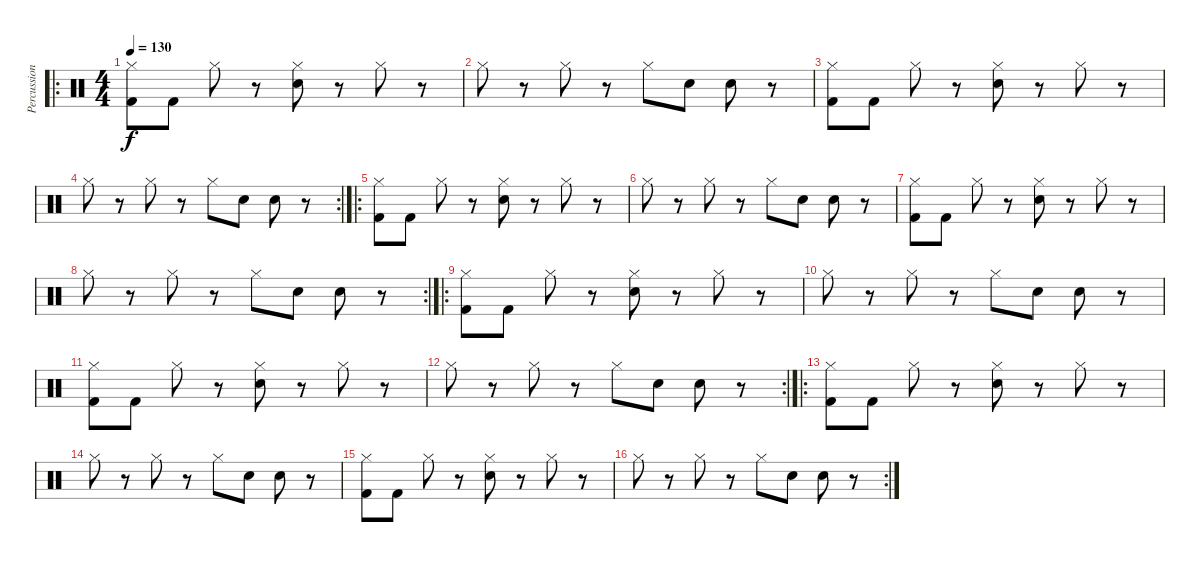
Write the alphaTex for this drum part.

\track ("Percussion" "Percussion") {instrument percussion}
\staff {score}
\articulation defaults
\ro
\ts (4 4)
\tempo 130
\clef neutral
\ks c
("Hi-Hat (closed)" "Kick (hit) 2").8{dy f} "Kick (hit) 2".8 "Hi-Hat (closed)".8 r.8 ("Hi-Hat (closed)" "Electric Snare (hit)").8 r.8 "Hi-Hat (closed)".8 r.8 |
"Hi-Hat (closed)".8 r.8 "Hi-Hat (closed)".8 r.8 "Hi-Hat (closed)".8 "Electric Snare (hit)".8 "Electric Snare (hit)".8 r.8 |
("Hi-Hat (closed)" "Kick (hit) 2").8 "Kick (hit) 2".8 "Hi-Hat (closed)".8 r.8 ("Hi-Hat (closed)" "Electric Snare (hit)").8 r.8 "Hi-Hat (closed)".8 r.8 |
\rc 2 "Hi-Hat (closed)".8
r.8 "Hi-Hat (closed)".8 r.8 "Hi-Hat (closed)".8 "Electric Snare (hit)".8 "Electric Snare (hit)".8 r.8 |
\ro
("Hi-Hat (closed)" "Kick (hit) 2").8 "Kick (hit) 2".8 "Hi-Hat (closed)".8 r.8 ("Hi-Hat (closed)" "Electric Snare (hit)").8 r.8 "Hi-Hat (closed)".8 r.8 |
"Hi-Hat (closed)".8 r.8 "Hi-Hat (closed)".8 r.8 "Hi-Hat (closed)".8 "Electric Snare (hit)".8 "Electric Snare (hit)".8 r.8 |
("Hi-Hat (closed)" "Kick (hit) 2").8 "Kick (hit) 2".8 "Hi-Hat (closed)".8 r.8 ("Hi-Hat (closed)" "Electric Snare (hit)").8 r.8 "Hi-Hat (closed)".8 r.8 |
\rc 2 "Hi-Hat (closed)".8
r.8 "Hi-Hat (closed)".8 r.8 "Hi-Hat (closed)".8 "Electric Snare (hit)".8 "Electric Snare (hit)".8 r.8 |
\ro
("Hi-Hat (closed)" "Kick (hit) 2").8 "Kick (hit) 2".8 "Hi-Hat (closed)".8 r.8 ("Hi-Hat (closed)" "Electric Snare (hit)").8 r.8 "Hi-Hat (closed)".8 r.8 |
"Hi-Hat (closed)".8 r.8 "Hi-Hat (closed)".8 r.8 "Hi-Hat (closed)".8 "Electric Snare (hit)".8 "Electric Snare (hit)".8 r.8 |
("Hi-Hat (closed)" "Kick (hit) 2").8 "Kick (hit) 2".8 "Hi-Hat (closed)".8 r.8 ("Hi-Hat (closed)" "Electric Snare (hit)").8 r.8 "Hi-Hat (closed)".8 r.8 |
\rc 2 "Hi-Hat (closed)".8
r.8 "Hi-Hat (closed)".8 r.8 "Hi-Hat (closed)".8 "Electric Snare (hit)".8 "Electric Snare (hit)".8 r.8 |
\ro
("Hi-Hat (closed)" "Kick (hit) 2").8 "Kick (hit) 2".8 "Hi-Hat (closed)".8 r.8 ("Hi-Hat (closed)" "Electric Snare (hit)").8 r.8 "Hi-Hat (closed)".8 r.8 |
"Hi-Hat (closed)".8 r.8 "Hi-Hat (closed)".8 r.8 "Hi-Hat (closed)".8 "Electric Snare (hit)".8 "Electric Snare (hit)".8 r.8 |
("Hi-Hat (closed)" "Kick (hit) 2").8 "Kick (hit) 2".8 "Hi-Hat (closed)".8 r.8 ("Hi-Hat (closed)" "Electric Snare (hit)").8 r.8 "Hi-Hat (closed)".8 r.8 |
\rc 2 "Hi-Hat (closed)".8
r.8 "Hi-Hat (closed)".8 r.8 "Hi-Hat (closed)".8 "Electric Snare (hit)".8 "Electric Snare (hit)".8 r.8
